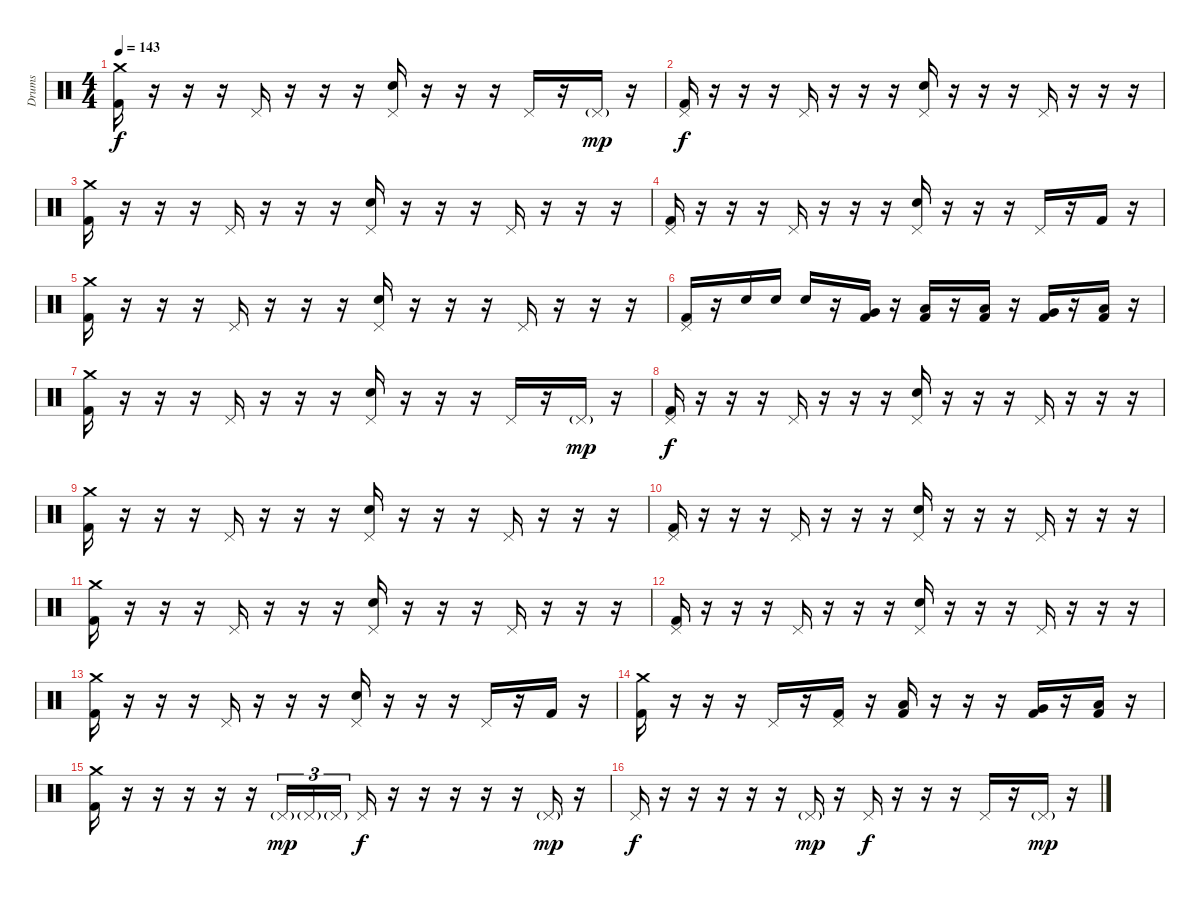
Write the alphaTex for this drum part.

\track ("Drums" "Drums") {instrument percussion}
\staff {score}
\articulation defaults
\ts (4 4)
\tempo 143
\clef neutral
\ks c
("Crash medium (hit)" "Kick (hit) 2").16{dy f} r.16 r.16 r.16 "Pedal Hi-Hat (hit)".16 r.16 r.16 r.16 ("Pedal Hi-Hat (hit)" "Electric Snare (hit)").16 r.16 r.16 r.16 "Pedal Hi-Hat (hit)".16 r.16 "Pedal Hi-Hat (hit)"{g}.16{dy mp} r.16 |
("Pedal Hi-Hat (hit)" "Kick (hit) 2").16{dy f} r.16 r.16 r.16 "Pedal Hi-Hat (hit)".16 r.16 r.16 r.16 ("Pedal Hi-Hat (hit)" "Electric Snare (hit)").16 r.16 r.16 r.16 "Pedal Hi-Hat (hit)".16 r.16 r.16 r.16 |
("Crash medium (hit)" "Kick (hit) 2").16 r.16 r.16 r.16 "Pedal Hi-Hat (hit)".16 r.16 r.16 r.16 ("Pedal Hi-Hat (hit)" "Electric Snare (hit)").16 r.16 r.16 r.16 "Pedal Hi-Hat (hit)".16 r.16 r.16 r.16 |
("Pedal Hi-Hat (hit)" "Kick (hit) 2").16 r.16 r.16 r.16 "Pedal Hi-Hat (hit)".16 r.16 r.16 r.16 ("Pedal Hi-Hat (hit)" "Electric Snare (hit)").16 r.16 r.16 r.16 "Pedal Hi-Hat (hit)".16 r.16 "Kick (hit) 2".16 r.16 |
("Crash medium (hit)" "Kick (hit) 2").16 r.16 r.16 r.16 "Pedal Hi-Hat (hit)".16 r.16 r.16 r.16 ("Pedal Hi-Hat (hit)" "Electric Snare (hit)").16 r.16 r.16 r.16 "Pedal Hi-Hat (hit)".16 r.16 r.16 r.16 |
("Pedal Hi-Hat (hit)" "Kick (hit) 2").16 r.16 "Electric Snare (hit)".16 "Electric Snare (hit)".16 "Electric Snare (hit)".16 r.16 ("Very Low Tom (hit)" "Kick (hit) 2").16 r.16 ("Low Tom (hit)" "Kick (hit) 2").16 r.16 ("Low Tom (hit)" "Kick (hit) 2").16 r.16 ("Very Low Tom (hit)" "Kick (hit) 2").16 r.16 ("Low Floor Tom (hit)" "Kick (hit) 2").16 r.16 |
("Crash medium (hit)" "Kick (hit) 2").16 r.16 r.16 r.16 "Pedal Hi-Hat (hit)".16 r.16 r.16 r.16 ("Pedal Hi-Hat (hit)" "Electric Snare (hit)").16 r.16 r.16 r.16 "Pedal Hi-Hat (hit)".16 r.16 "Pedal Hi-Hat (hit)"{g}.16{dy mp} r.16 |
("Pedal Hi-Hat (hit)" "Kick (hit) 2").16{dy f} r.16 r.16 r.16 "Pedal Hi-Hat (hit)".16 r.16 r.16 r.16 ("Pedal Hi-Hat (hit)" "Electric Snare (hit)").16 r.16 r.16 r.16 "Pedal Hi-Hat (hit)".16 r.16 r.16 r.16 |
("Crash medium (hit)" "Kick (hit) 2").16 r.16 r.16 r.16 "Pedal Hi-Hat (hit)".16 r.16 r.16 r.16 ("Pedal Hi-Hat (hit)" "Electric Snare (hit)").16 r.16 r.16 r.16 "Pedal Hi-Hat (hit)".16 r.16 r.16 r.16 |
("Pedal Hi-Hat (hit)" "Kick (hit) 2").16 r.16 r.16 r.16 "Pedal Hi-Hat (hit)".16 r.16 r.16 r.16 ("Pedal Hi-Hat (hit)" "Electric Snare (hit)").16 r.16 r.16 r.16 "Pedal Hi-Hat (hit)".16 r.16 r.16 r.16 |
("Crash medium (hit)" "Kick (hit) 2").16 r.16 r.16 r.16 "Pedal Hi-Hat (hit)".16 r.16 r.16 r.16 ("Pedal Hi-Hat (hit)" "Electric Snare (hit)").16 r.16 r.16 r.16 "Pedal Hi-Hat (hit)".16 r.16 r.16 r.16 |
("Pedal Hi-Hat (hit)" "Kick (hit) 2").16 r.16 r.16 r.16 "Pedal Hi-Hat (hit)".16 r.16 r.16 r.16 ("Pedal Hi-Hat (hit)" "Electric Snare (hit)").16 r.16 r.16 r.16 "Pedal Hi-Hat (hit)".16 r.16 r.16 r.16 |
("Crash medium (hit)" "Kick (hit) 2").16 r.16 r.16 r.16 "Pedal Hi-Hat (hit)".16 r.16 r.16 r.16 ("Pedal Hi-Hat (hit)" "Electric Snare (hit)").16 r.16 r.16 r.16 "Pedal Hi-Hat (hit)".16 r.16 "Kick (hit) 2".16 r.16 |
("Crash medium (hit)" "Kick (hit) 2").16 r.16 r.16 r.16 "Pedal Hi-Hat (hit)".16 r.16 ("Pedal Hi-Hat (hit)" "Kick (hit) 2").16 r.16 ("Low Tom (hit)" "Kick (hit) 2").16 r.16 r.16 r.16 ("Very Low Tom (hit)" "Kick (hit) 2").16 r.16 ("Low Floor Tom (hit)" "Kick (hit) 2").16 r.16 |
\section ("" "")
("Crash medium (hit)" "Kick (hit) 2").16 r.16 r.16 r.16 r.16 r.16 "Pedal Hi-Hat (hit)"{g}.16{tu (3 2) dy mp} "Pedal Hi-Hat (hit)"{g}.16{tu (3 2)} "Pedal Hi-Hat (hit)"{g}.16{tu (3 2)} "Pedal Hi-Hat (hit)".16{dy f} r.16 r.16 r.16 r.16 r.16 "Pedal Hi-Hat (hit)"{g}.16{dy mp} r.16 |
"Pedal Hi-Hat (hit)".16{dy f} r.16 r.16 r.16 r.16 r.16 "Pedal Hi-Hat (hit)"{g}.16{dy mp} r.16 "Pedal Hi-Hat (hit)".16{dy f} r.16 r.16 r.16 "Pedal Hi-Hat (hit)".16 r.16 "Pedal Hi-Hat (hit)"{g}.16{dy mp} r.16
